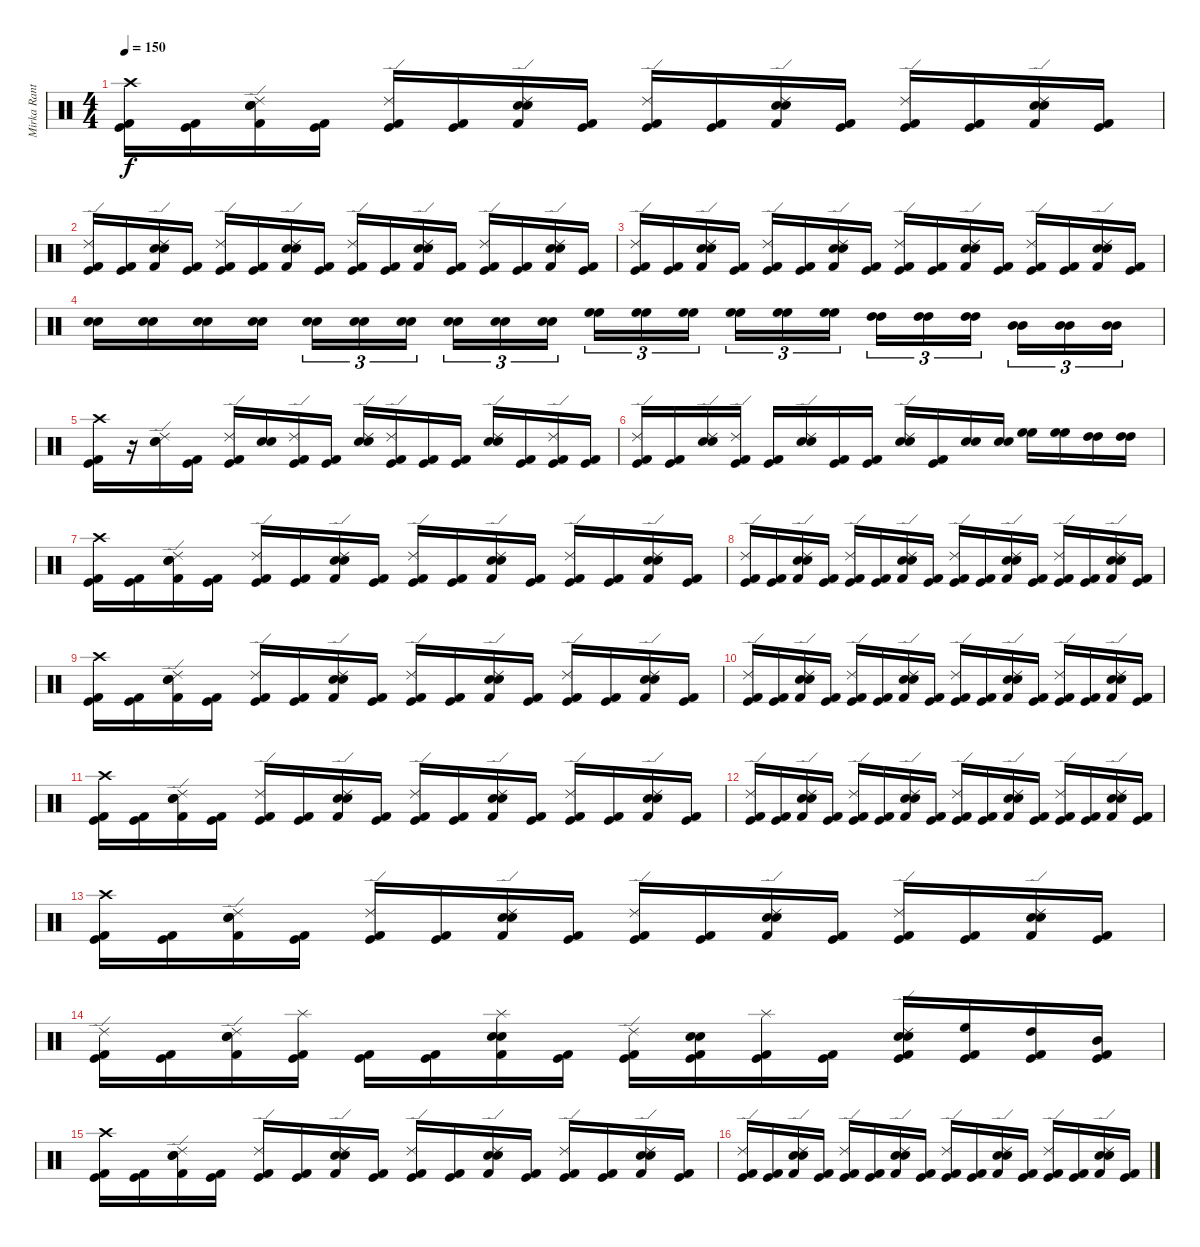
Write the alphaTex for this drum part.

\track ("Mirka Rantanen" "Mirka Rant") {instrument percussion}
\staff {score}
\articulation defaults
\ts (4 4)
\tempo 150
\clef neutral
\ks c
("Crash high (hit)" "Kick (hit)" "Kick (hit) 2").16{dy f} ("Kick (hit)" "Kick (hit) 2").16 ("Ride (edge) 2" "Kick (hit) 2" "Electric Snare (hit)" "Snare (hit) 2").16 ("Kick (hit)" "Kick (hit) 2").16 ("Ride (edge) 2" "Kick (hit)" "Kick (hit) 2").16 ("Kick (hit)" "Kick (hit) 2").16 ("Ride (edge) 2" "Kick (hit) 2" "Electric Snare (hit)" "Snare (hit) 2").16 ("Kick (hit)" "Kick (hit) 2").16 ("Ride (edge) 2" "Kick (hit)" "Kick (hit) 2").16 ("Kick (hit)" "Kick (hit) 2").16 ("Ride (edge) 2" "Kick (hit) 2" "Electric Snare (hit)" "Snare (hit) 2").16 ("Kick (hit)" "Kick (hit) 2").16 ("Ride (edge) 2" "Kick (hit)" "Kick (hit) 2").16 ("Kick (hit)" "Kick (hit) 2").16 ("Ride (edge) 2" "Kick (hit) 2" "Electric Snare (hit)" "Snare (hit) 2").16 ("Kick (hit)" "Kick (hit) 2").16 |
("Ride (edge) 2" "Kick (hit)" "Kick (hit) 2").16 ("Kick (hit)" "Kick (hit) 2").16 ("Ride (edge) 2" "Kick (hit) 2" "Electric Snare (hit)" "Snare (hit) 2").16 ("Kick (hit)" "Kick (hit) 2").16 ("Ride (edge) 2" "Kick (hit)" "Kick (hit) 2").16 ("Kick (hit)" "Kick (hit) 2").16 ("Ride (edge) 2" "Kick (hit) 2" "Electric Snare (hit)" "Snare (hit) 2").16 ("Kick (hit)" "Kick (hit) 2").16 ("Ride (edge) 2" "Kick (hit)" "Kick (hit) 2").16 ("Kick (hit)" "Kick (hit) 2").16 ("Ride (edge) 2" "Kick (hit) 2" "Electric Snare (hit)" "Snare (hit) 2").16 ("Kick (hit)" "Kick (hit) 2").16 ("Ride (edge) 2" "Kick (hit)" "Kick (hit) 2").16 ("Kick (hit)" "Kick (hit) 2").16 ("Ride (edge) 2" "Kick (hit) 2" "Electric Snare (hit)" "Snare (hit) 2").16 ("Kick (hit)" "Kick (hit) 2").16 |
("Ride (edge) 2" "Kick (hit)" "Kick (hit) 2").16 ("Kick (hit)" "Kick (hit) 2").16 ("Ride (edge) 2" "Kick (hit) 2" "Electric Snare (hit)" "Snare (hit) 2").16 ("Kick (hit)" "Kick (hit) 2").16 ("Ride (edge) 2" "Kick (hit)" "Kick (hit) 2").16 ("Kick (hit)" "Kick (hit) 2").16 ("Ride (edge) 2" "Kick (hit) 2" "Electric Snare (hit)" "Snare (hit) 2").16 ("Kick (hit)" "Kick (hit) 2").16 ("Ride (edge) 2" "Kick (hit)" "Kick (hit) 2").16 ("Kick (hit)" "Kick (hit) 2").16 ("Ride (edge) 2" "Kick (hit) 2" "Electric Snare (hit)" "Snare (hit) 2").16 ("Kick (hit)" "Kick (hit) 2").16 ("Ride (edge) 2" "Kick (hit)" "Kick (hit) 2").16 ("Kick (hit)" "Kick (hit) 2").16 ("Ride (edge) 2" "Kick (hit) 2" "Electric Snare (hit)" "Snare (hit) 2").16 ("Kick (hit)" "Kick (hit) 2").16 |
("Electric Snare (hit)" "Snare (hit) 2").16 ("Electric Snare (hit)" "Snare (hit) 2").16 ("Electric Snare (hit)" "Snare (hit) 2").16 ("Electric Snare (hit)" "Snare (hit) 2").16 ("Electric Snare (hit)" "Snare (hit) 2").16{tu (3 2)} ("Electric Snare (hit)" "Snare (hit) 2").16{tu (3 2)} ("Electric Snare (hit)" "Snare (hit) 2").16{tu (3 2)} ("Electric Snare (hit)" "Snare (hit) 2").16{tu (3 2)} ("Electric Snare (hit)" "Snare (hit) 2").16{tu (3 2)} ("Electric Snare (hit)" "Snare (hit) 2").16{tu (3 2)} ("High Floor Tom (hit)" "High Floor Tom (hit)").16{tu (3 2)} ("High Floor Tom (hit)" "High Floor Tom (hit)").16{tu (3 2)} ("High Floor Tom (hit)" "High Floor Tom (hit)").16{tu (3 2)} ("High Floor Tom (hit)" "High Floor Tom (hit)").16{tu (3 2)} ("High Floor Tom (hit)" "High Floor Tom (hit)").16{tu (3 2)} ("High Floor Tom (hit)" "High Floor Tom (hit)").16{tu (3 2)} ("High Tom (hit)" "High Tom (hit)").16{tu (3 2)} ("High Tom (hit)" "High Tom (hit)").16{tu (3 2)} ("High Tom (hit)" "High Tom (hit)").16{tu (3 2)} ("Mid Tom (hit)" "Mid Tom (hit)").16{tu (3 2)} ("Mid Tom (hit)" "Mid Tom (hit)").16{tu (3 2)} ("Mid Tom (hit)" "Mid Tom (hit)").16{tu (3 2)} |
("Crash high (hit)" "Kick (hit)" "Kick (hit) 2").16 r.16 ("Ride (edge) 2" "Electric Snare (hit)" "Snare (hit) 2").16 ("Kick (hit)" "Kick (hit) 2").16 ("Ride (edge) 2" "Kick (hit)" "Kick (hit) 2").16 ("Electric Snare (hit)" "Snare (hit) 2").16 ("Ride (edge) 2" "Kick (hit)" "Kick (hit) 2").16 ("Kick (hit)" "Kick (hit) 2").16 ("Ride (edge) 2" "Electric Snare (hit)" "Snare (hit) 2").16 ("Ride (edge) 2" "Kick (hit)" "Kick (hit) 2").16 ("Kick (hit)" "Kick (hit) 2").16 ("Kick (hit)" "Kick (hit) 2").16 ("Ride (edge) 2" "Electric Snare (hit)" "Snare (hit) 2").16 ("Kick (hit)" "Kick (hit) 2").16 ("Ride (edge) 2" "Kick (hit)" "Kick (hit) 2").16 ("Kick (hit)" "Kick (hit) 2").16 |
("Ride (edge) 2" "Kick (hit)" "Kick (hit) 2").16 ("Kick (hit)" "Kick (hit) 2").16 ("Ride (edge) 2" "Electric Snare (hit)" "Snare (hit) 2").16 ("Ride (edge) 2" "Kick (hit)" "Kick (hit) 2").16 ("Kick (hit)" "Kick (hit) 2").16 ("Ride (edge) 2" "Electric Snare (hit)" "Snare (hit) 2").16 ("Kick (hit)" "Kick (hit) 2").16 ("Kick (hit)" "Kick (hit) 2").16 ("Ride (edge) 2" "Electric Snare (hit)" "Snare (hit) 2").16 ("Kick (hit)" "Kick (hit) 2").16 ("Electric Snare (hit)" "Snare (hit) 2").16 ("Electric Snare (hit)" "Snare (hit) 2").16 ("High Floor Tom (hit)" "High Floor Tom (hit)").16 ("High Floor Tom (hit)" "High Floor Tom (hit)").16 ("High Tom (hit)" "High Tom (hit)").16 ("High Tom (hit)" "High Tom (hit)").16 |
("Crash high (hit)" "Kick (hit)" "Kick (hit) 2").16 ("Kick (hit)" "Kick (hit) 2").16 ("Ride (edge) 2" "Kick (hit) 2" "Electric Snare (hit)" "Snare (hit) 2").16 ("Kick (hit)" "Kick (hit) 2").16 ("Ride (edge) 2" "Kick (hit)" "Kick (hit) 2").16 ("Kick (hit)" "Kick (hit) 2").16 ("Ride (edge) 2" "Kick (hit) 2" "Electric Snare (hit)" "Snare (hit) 2").16 ("Kick (hit)" "Kick (hit) 2").16 ("Ride (edge) 2" "Kick (hit)" "Kick (hit) 2").16 ("Kick (hit)" "Kick (hit) 2").16 ("Ride (edge) 2" "Kick (hit) 2" "Electric Snare (hit)" "Snare (hit) 2").16 ("Kick (hit)" "Kick (hit) 2").16 ("Ride (edge) 2" "Kick (hit)" "Kick (hit) 2").16 ("Kick (hit)" "Kick (hit) 2").16 ("Ride (edge) 2" "Kick (hit) 2" "Electric Snare (hit)" "Snare (hit) 2").16 ("Kick (hit)" "Kick (hit) 2").16 |
("Ride (edge) 2" "Kick (hit)" "Kick (hit) 2").16 ("Kick (hit)" "Kick (hit) 2").16 ("Ride (edge) 2" "Kick (hit) 2" "Electric Snare (hit)" "Snare (hit) 2").16 ("Kick (hit)" "Kick (hit) 2").16 ("Ride (edge) 2" "Kick (hit)" "Kick (hit) 2").16 ("Kick (hit)" "Kick (hit) 2").16 ("Ride (edge) 2" "Kick (hit) 2" "Electric Snare (hit)" "Snare (hit) 2").16 ("Kick (hit)" "Kick (hit) 2").16 ("Ride (edge) 2" "Kick (hit)" "Kick (hit) 2").16 ("Kick (hit)" "Kick (hit) 2").16 ("Ride (edge) 2" "Kick (hit) 2" "Electric Snare (hit)" "Snare (hit) 2").16 ("Kick (hit)" "Kick (hit) 2").16 ("Ride (edge) 2" "Kick (hit)" "Kick (hit) 2").16 ("Kick (hit)" "Kick (hit) 2").16 ("Ride (edge) 2" "Kick (hit) 2" "Electric Snare (hit)" "Snare (hit) 2").16 ("Kick (hit)" "Kick (hit) 2").16 |
("Crash high (hit)" "Kick (hit)" "Kick (hit) 2").16 ("Kick (hit)" "Kick (hit) 2").16 ("Ride (edge) 2" "Kick (hit) 2" "Electric Snare (hit)" "Snare (hit) 2").16 ("Kick (hit)" "Kick (hit) 2").16 ("Ride (edge) 2" "Kick (hit)" "Kick (hit) 2").16 ("Kick (hit)" "Kick (hit) 2").16 ("Ride (edge) 2" "Kick (hit) 2" "Electric Snare (hit)" "Snare (hit) 2").16 ("Kick (hit)" "Kick (hit) 2").16 ("Ride (edge) 2" "Kick (hit)" "Kick (hit) 2").16 ("Kick (hit)" "Kick (hit) 2").16 ("Ride (edge) 2" "Kick (hit) 2" "Electric Snare (hit)" "Snare (hit) 2").16 ("Kick (hit)" "Kick (hit) 2").16 ("Ride (edge) 2" "Kick (hit)" "Kick (hit) 2").16 ("Kick (hit)" "Kick (hit) 2").16 ("Ride (edge) 2" "Kick (hit) 2" "Electric Snare (hit)" "Snare (hit) 2").16 ("Kick (hit)" "Kick (hit) 2").16 |
("Ride (edge) 2" "Kick (hit)" "Kick (hit) 2").16 ("Kick (hit)" "Kick (hit) 2").16 ("Ride (edge) 2" "Kick (hit) 2" "Electric Snare (hit)" "Snare (hit) 2").16 ("Kick (hit)" "Kick (hit) 2").16 ("Ride (edge) 2" "Kick (hit)" "Kick (hit) 2").16 ("Kick (hit)" "Kick (hit) 2").16 ("Ride (edge) 2" "Kick (hit) 2" "Electric Snare (hit)" "Snare (hit) 2").16 ("Kick (hit)" "Kick (hit) 2").16 ("Ride (edge) 2" "Kick (hit)" "Kick (hit) 2").16 ("Kick (hit)" "Kick (hit) 2").16 ("Ride (edge) 2" "Kick (hit) 2" "Electric Snare (hit)" "Snare (hit) 2").16 ("Kick (hit)" "Kick (hit) 2").16 ("Ride (edge) 2" "Kick (hit)" "Kick (hit) 2").16 ("Kick (hit)" "Kick (hit) 2").16 ("Ride (edge) 2" "Kick (hit) 2" "Electric Snare (hit)" "Snare (hit) 2").16 ("Kick (hit)" "Kick (hit) 2").16 |
("Crash high (hit)" "Kick (hit)" "Kick (hit) 2").16 ("Kick (hit)" "Kick (hit) 2").16 ("Ride (edge) 2" "Kick (hit) 2" "Electric Snare (hit)" "Snare (hit) 2").16 ("Kick (hit)" "Kick (hit) 2").16 ("Ride (edge) 2" "Kick (hit)" "Kick (hit) 2").16 ("Kick (hit)" "Kick (hit) 2").16 ("Ride (edge) 2" "Kick (hit) 2" "Electric Snare (hit)" "Snare (hit) 2").16 ("Kick (hit)" "Kick (hit) 2").16 ("Ride (edge) 2" "Kick (hit)" "Kick (hit) 2").16 ("Kick (hit)" "Kick (hit) 2").16 ("Ride (edge) 2" "Kick (hit) 2" "Electric Snare (hit)" "Snare (hit) 2").16 ("Kick (hit)" "Kick (hit) 2").16 ("Ride (edge) 2" "Kick (hit)" "Kick (hit) 2").16 ("Kick (hit)" "Kick (hit) 2").16 ("Ride (edge) 2" "Kick (hit) 2" "Electric Snare (hit)" "Snare (hit) 2").16 ("Kick (hit)" "Kick (hit) 2").16 |
("Ride (edge) 2" "Kick (hit)" "Kick (hit) 2").16 ("Kick (hit)" "Kick (hit) 2").16 ("Ride (edge) 2" "Kick (hit) 2" "Electric Snare (hit)" "Snare (hit) 2").16 ("Kick (hit)" "Kick (hit) 2").16 ("Ride (edge) 2" "Kick (hit)" "Kick (hit) 2").16 ("Kick (hit)" "Kick (hit) 2").16 ("Ride (edge) 2" "Kick (hit) 2" "Electric Snare (hit)" "Snare (hit) 2").16 ("Kick (hit)" "Kick (hit) 2").16 ("Ride (edge) 2" "Kick (hit)" "Kick (hit) 2").16 ("Kick (hit)" "Kick (hit) 2").16 ("Ride (edge) 2" "Kick (hit) 2" "Electric Snare (hit)" "Snare (hit) 2").16 ("Kick (hit)" "Kick (hit) 2").16 ("Ride (edge) 2" "Kick (hit)" "Kick (hit) 2").16 ("Kick (hit)" "Kick (hit) 2").16 ("Ride (edge) 2" "Kick (hit) 2" "Electric Snare (hit)" "Snare (hit) 2").16 ("Kick (hit)" "Kick (hit) 2").16 |
("Crash high (hit)" "Kick (hit)" "Kick (hit) 2").16 ("Kick (hit)" "Kick (hit) 2").16 ("Ride (edge) 2" "Kick (hit) 2" "Electric Snare (hit)" "Snare (hit) 2").16 ("Kick (hit)" "Kick (hit) 2").16 ("Ride (edge) 2" "Kick (hit)" "Kick (hit) 2").16 ("Kick (hit)" "Kick (hit) 2").16 ("Ride (edge) 2" "Kick (hit) 2" "Electric Snare (hit)" "Snare (hit) 2").16 ("Kick (hit)" "Kick (hit) 2").16 ("Ride (edge) 2" "Kick (hit)" "Kick (hit) 2").16 ("Kick (hit)" "Kick (hit) 2").16 ("Ride (edge) 2" "Kick (hit) 2" "Electric Snare (hit)" "Snare (hit) 2").16 ("Kick (hit)" "Kick (hit) 2").16 ("Ride (edge) 2" "Kick (hit)" "Kick (hit) 2").16 ("Kick (hit)" "Kick (hit) 2").16 ("Ride (edge) 2" "Kick (hit) 2" "Electric Snare (hit)" "Snare (hit) 2").16 ("Kick (hit)" "Kick (hit) 2").16 |
("Ride (edge) 2" "Kick (hit)" "Kick (hit) 2").16 ("Kick (hit)" "Kick (hit) 2").16 ("Ride (edge) 2" "Kick (hit) 2" "Electric Snare (hit)" "Snare (hit) 2").16 ("Splash (hit)" "Kick (hit)" "Kick (hit) 2").16 ("Kick (hit)" "Kick (hit) 2").16 ("Kick (hit)" "Kick (hit) 2").16 ("Splash (hit)" "Kick (hit) 2" "Electric Snare (hit)" "Snare (hit) 2").16 ("Kick (hit)" "Kick (hit) 2").16 ("Ride (edge) 2" "Kick (hit)" "Kick (hit) 2").16 ("Kick (hit)" "Kick (hit) 2" "Electric Snare (hit)" "Snare (hit) 2").16 ("Splash (hit)" "Kick (hit)" "Kick (hit) 2").16 ("Kick (hit)" "Kick (hit) 2").16 ("Ride (edge) 2" "Kick (hit)" "Kick (hit) 2" "Electric Snare (hit)" "Snare (hit) 2").16 ("High Floor Tom (hit)" "Kick (hit)" "Kick (hit) 2").16 ("High Tom (hit)" "Kick (hit)" "Kick (hit) 2").16 ("Mid Tom (hit)" "Kick (hit)" "Kick (hit) 2").16 |
("Crash high (hit)" "Kick (hit)" "Kick (hit) 2").16 ("Kick (hit)" "Kick (hit) 2").16 ("Ride (edge) 2" "Kick (hit) 2" "Electric Snare (hit)" "Snare (hit) 2").16 ("Kick (hit)" "Kick (hit) 2").16 ("Ride (edge) 2" "Kick (hit)" "Kick (hit) 2").16 ("Kick (hit)" "Kick (hit) 2").16 ("Ride (edge) 2" "Kick (hit) 2" "Electric Snare (hit)" "Snare (hit) 2").16 ("Kick (hit)" "Kick (hit) 2").16 ("Ride (edge) 2" "Kick (hit)" "Kick (hit) 2").16 ("Kick (hit)" "Kick (hit) 2").16 ("Ride (edge) 2" "Kick (hit) 2" "Electric Snare (hit)" "Snare (hit) 2").16 ("Kick (hit)" "Kick (hit) 2").16 ("Ride (edge) 2" "Kick (hit)" "Kick (hit) 2").16 ("Kick (hit)" "Kick (hit) 2").16 ("Ride (edge) 2" "Kick (hit) 2" "Electric Snare (hit)" "Snare (hit) 2").16 ("Kick (hit)" "Kick (hit) 2").16 |
("Ride (edge) 2" "Kick (hit)" "Kick (hit) 2").16 ("Kick (hit)" "Kick (hit) 2").16 ("Ride (edge) 2" "Kick (hit) 2" "Electric Snare (hit)" "Snare (hit) 2").16 ("Kick (hit)" "Kick (hit) 2").16 ("Ride (edge) 2" "Kick (hit)" "Kick (hit) 2").16 ("Kick (hit)" "Kick (hit) 2").16 ("Ride (edge) 2" "Kick (hit) 2" "Electric Snare (hit)" "Snare (hit) 2").16 ("Kick (hit)" "Kick (hit) 2").16 ("Ride (edge) 2" "Kick (hit)" "Kick (hit) 2").16 ("Kick (hit)" "Kick (hit) 2").16 ("Ride (edge) 2" "Kick (hit) 2" "Electric Snare (hit)" "Snare (hit) 2").16 ("Kick (hit)" "Kick (hit) 2").16 ("Ride (edge) 2" "Kick (hit)" "Kick (hit) 2").16 ("Kick (hit)" "Kick (hit) 2").16 ("Ride (edge) 2" "Kick (hit) 2" "Electric Snare (hit)" "Snare (hit) 2").16 ("Kick (hit)" "Kick (hit) 2").16
